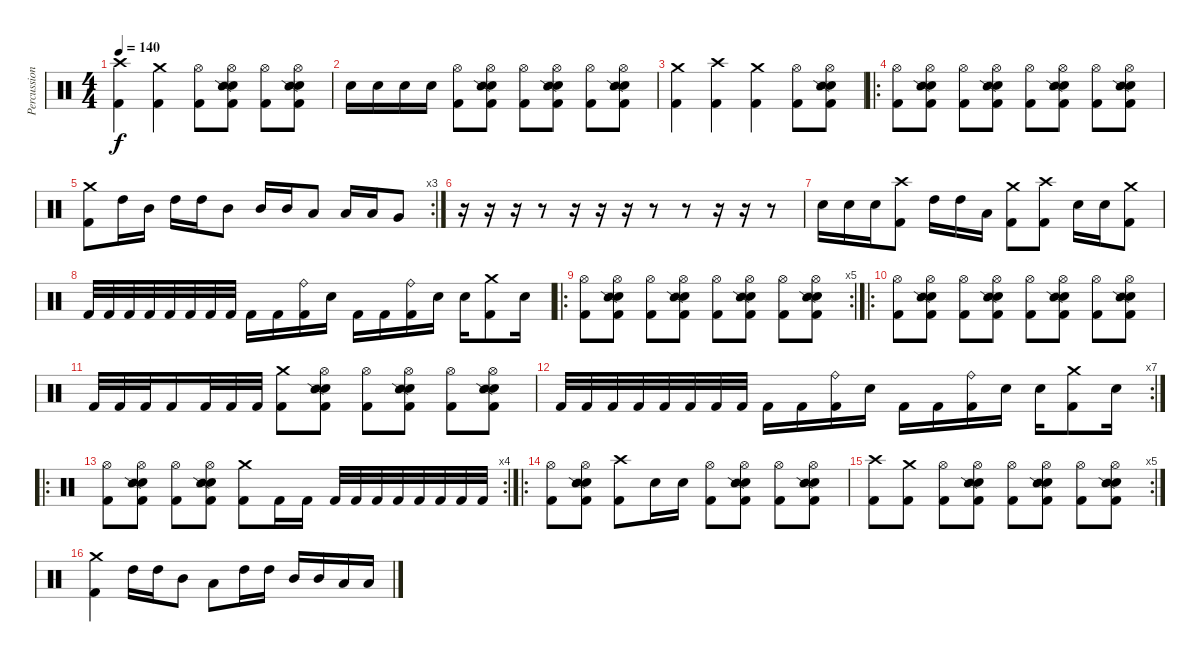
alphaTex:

\track ("Percussion" "Percussion") {instrument percussion}
\staff {score}
\articulation defaults
\ts (4 4)
\tempo 140
\clef neutral
\ks c
("Crash high (hit)" "Kick (hit) 2").4{dy f} ("Crash medium (hit)" "Kick (hit) 2").4 ("Hi-Hat (open)" "Kick (hit) 2").8 ("Hi-Hat (open)" "Electric Snare (hit)" "Snare (side stick) 2" "Kick (hit) 2").8 ("Hi-Hat (open)" "Kick (hit) 2").8 ("Hi-Hat (open)" "Electric Snare (hit)" "Snare (side stick) 2" "Kick (hit) 2").8 |
"Electric Snare (hit)".16 "Electric Snare (hit)".16 "Electric Snare (hit)".16 "Electric Snare (hit)".16 ("Hi-Hat (open)" "Kick (hit) 2").8 ("Hi-Hat (open)" "Electric Snare (hit)" "Snare (side stick) 2" "Kick (hit) 2").8 ("Hi-Hat (open)" "Kick (hit) 2").8 ("Hi-Hat (open)" "Electric Snare (hit)" "Snare (side stick) 2" "Kick (hit) 2").8 ("Hi-Hat (open)" "Kick (hit) 2").8 ("Hi-Hat (open)" "Electric Snare (hit)" "Snare (side stick) 2" "Kick (hit) 2").8 |
("Crash medium (hit)" "Kick (hit) 2").4 ("Crash high (hit)" "Kick (hit) 2").4 ("Crash medium (hit)" "Kick (hit) 2").4 ("Hi-Hat (open)" "Kick (hit) 2").8 ("Hi-Hat (open)" "Electric Snare (hit)" "Snare (side stick) 2" "Kick (hit) 2").8 |
\ro
("Hi-Hat (open)" "Kick (hit) 2").8 ("Hi-Hat (open)" "Electric Snare (hit)" "Snare (side stick) 2" "Kick (hit) 2").8 ("Hi-Hat (open)" "Kick (hit) 2").8 ("Hi-Hat (open)" "Electric Snare (hit)" "Snare (side stick) 2" "Kick (hit) 2").8 ("Hi-Hat (open)" "Kick (hit) 2").8 ("Hi-Hat (open)" "Electric Snare (hit)" "Snare (side stick) 2" "Kick (hit) 2").8 ("Hi-Hat (open)" "Kick (hit) 2").8 ("Hi-Hat (open)" "Electric Snare (hit)" "Snare (side stick) 2" "Kick (hit) 2").8 |
\rc 3
("Crash medium (hit)" "Kick (hit) 2").8 "High Tom (hit)".16 "Mid Tom (hit)".16 "High Tom (hit)".16 "High Tom (hit)".16 "Mid Tom (hit)".8 "Mid Tom (hit)".16 "Mid Tom (hit)".16 "Low Tom (hit)".8 "Low Tom (hit)".16 "Low Tom (hit)".16 "Very Low Tom (hit)".8 |
r.16 r.16 r.16 r.8 r.16 r.16 r.16 r.8 r.8 r.16 r.16 r.8 |
"Electric Snare (hit)".16 "Electric Snare (hit)".16 "Electric Snare (hit)".16 ("Crash high (hit)" "Kick (hit) 2").8 "High Tom (hit)".16 "High Tom (hit)".16 "Low Tom (hit)".16 ("Crash medium (hit)" "Kick (hit) 2").8 ("Crash high (hit)" "Kick (hit) 2").8 "Electric Snare (hit)".16 "Electric Snare (hit)".16 ("Crash medium (hit)" "Kick (hit) 2").8 |
"Kick (hit) 2".32 "Kick (hit) 2".32 "Kick (hit) 2".32 "Kick (hit) 2".32 "Kick (hit) 2".32 "Kick (hit) 2".32 "Kick (hit) 2".32 "Kick (hit) 2".32 "Kick (hit) 2".16 "Kick (hit) 2".16 ("Ride (bell)" "Kick (hit) 2").16 "Electric Snare (hit)".16 "Kick (hit) 2".16 "Kick (hit) 2".16 ("Ride (bell)" "Kick (hit) 2").16 "Electric Snare (hit)".16 "Electric Snare (hit)".16 ("Crash medium (hit)" "Kick (hit) 2").8 "Electric Snare (hit)".16 |
\ro
\rc 5
("Hi-Hat (open)" "Kick (hit) 2").8 ("Hi-Hat (open)" "Electric Snare (hit)" "Snare (side stick) 2" "Kick (hit) 2").8 ("Hi-Hat (open)" "Kick (hit) 2").8 ("Hi-Hat (open)" "Electric Snare (hit)" "Snare (side stick) 2" "Kick (hit) 2").8 ("Hi-Hat (open)" "Kick (hit) 2").8 ("Hi-Hat (open)" "Electric Snare (hit)" "Snare (side stick) 2" "Kick (hit) 2").8 ("Hi-Hat (open)" "Kick (hit) 2").8 ("Hi-Hat (open)" "Electric Snare (hit)" "Snare (side stick) 2" "Kick (hit) 2").8 |
\ro
("Hi-Hat (open)" "Kick (hit) 2").8 ("Hi-Hat (open)" "Electric Snare (hit)" "Snare (side stick) 2" "Kick (hit) 2").8 ("Hi-Hat (open)" "Kick (hit) 2").8 ("Hi-Hat (open)" "Electric Snare (hit)" "Snare (side stick) 2" "Kick (hit) 2").8 ("Hi-Hat (open)" "Kick (hit) 2").8 ("Hi-Hat (open)" "Electric Snare (hit)" "Snare (side stick) 2" "Kick (hit) 2").8 ("Hi-Hat (open)" "Kick (hit) 2").8 ("Hi-Hat (open)" "Electric Snare (hit)" "Snare (side stick) 2" "Kick (hit) 2").8 |
"Kick (hit) 2".32 "Kick (hit) 2".32 "Kick (hit) 2".32 "Kick (hit) 2".16 "Kick (hit) 2".32 "Kick (hit) 2".32 "Kick (hit) 2".32 ("Crash medium (hit)" "Kick (hit) 2").8 ("Hi-Hat (open)" "Electric Snare (hit)" "Snare (side stick) 2" "Kick (hit) 2").8 ("Hi-Hat (open)" "Kick (hit) 2").8 ("Hi-Hat (open)" "Electric Snare (hit)" "Snare (side stick) 2" "Kick (hit) 2").8 ("Hi-Hat (open)" "Kick (hit) 2").8 ("Hi-Hat (open)" "Electric Snare (hit)" "Snare (side stick) 2" "Kick (hit) 2").8 |
\rc 7 "Kick (hit) 2".32 "Kick (hit) 2".32 "Kick (hit) 2".32 "Kick (hit) 2".32 "Kick (hit) 2".32 "Kick (hit) 2".32 "Kick (hit) 2".32 "Kick (hit) 2".32 "Kick (hit) 2".16 "Kick (hit) 2".16
("Ride (bell)" "Kick (hit) 2").16 "Electric Snare (hit)".16 "Kick (hit) 2".16 "Kick (hit) 2".16 ("Ride (bell)" "Kick (hit) 2").16 "Electric Snare (hit)".16 "Electric Snare (hit)".16 ("Crash medium (hit)" "Kick (hit) 2").8 "Electric Snare (hit)".16 |
\ro
\rc 4
("Hi-Hat (open)" "Kick (hit) 2").8 ("Hi-Hat (open)" "Electric Snare (hit)" "Snare (side stick) 2" "Kick (hit) 2").8 ("Hi-Hat (open)" "Kick (hit) 2").8 ("Hi-Hat (open)" "Electric Snare (hit)" "Snare (side stick) 2" "Kick (hit) 2").8 ("Crash medium (hit)" "Kick (hit) 2").8 "Kick (hit) 2".16 "Kick (hit) 2".16 "Kick (hit) 2".32 "Kick (hit) 2".32 "Kick (hit) 2".32 "Kick (hit) 2".32 "Kick (hit) 2".32 "Kick (hit) 2".32 "Kick (hit) 2".32 "Kick (hit) 2".32 |
\ro
("Hi-Hat (open)" "Kick (hit) 2").8 ("Hi-Hat (open)" "Electric Snare (hit)" "Snare (side stick) 2" "Kick (hit) 2").8 ("Crash high (hit)" "Kick (hit) 2").8 "Electric Snare (hit)".16 "Electric Snare (hit)".16 ("Hi-Hat (open)" "Kick (hit) 2").8 ("Hi-Hat (open)" "Electric Snare (hit)" "Snare (side stick) 2" "Kick (hit) 2").8 ("Hi-Hat (open)" "Kick (hit) 2").8 ("Hi-Hat (open)" "Electric Snare (hit)" "Snare (side stick) 2" "Kick (hit) 2").8 |
\rc 5
("Crash high (hit)" "Kick (hit) 2").8 ("Crash medium (hit)" "Kick (hit) 2").8 ("Hi-Hat (open)" "Kick (hit) 2").8 ("Hi-Hat (open)" "Electric Snare (hit)" "Snare (side stick) 2" "Kick (hit) 2").8 ("Hi-Hat (open)" "Kick (hit) 2").8 ("Hi-Hat (open)" "Electric Snare (hit)" "Snare (side stick) 2" "Kick (hit) 2").8 ("Hi-Hat (open)" "Kick (hit) 2").8 ("Hi-Hat (open)" "Electric Snare (hit)" "Snare (side stick) 2" "Kick (hit) 2").8 |
("Crash medium (hit)" "Kick (hit) 2").4 "High Tom (hit)".16 "High Tom (hit)".16 "Mid Tom (hit)".8 "Low Tom (hit)".8 "High Tom (hit)".16 "High Tom (hit)".16 "Mid Tom (hit)".16 "Mid Tom (hit)".16 "Low Tom (hit)".16 "Low Tom (hit)".16
